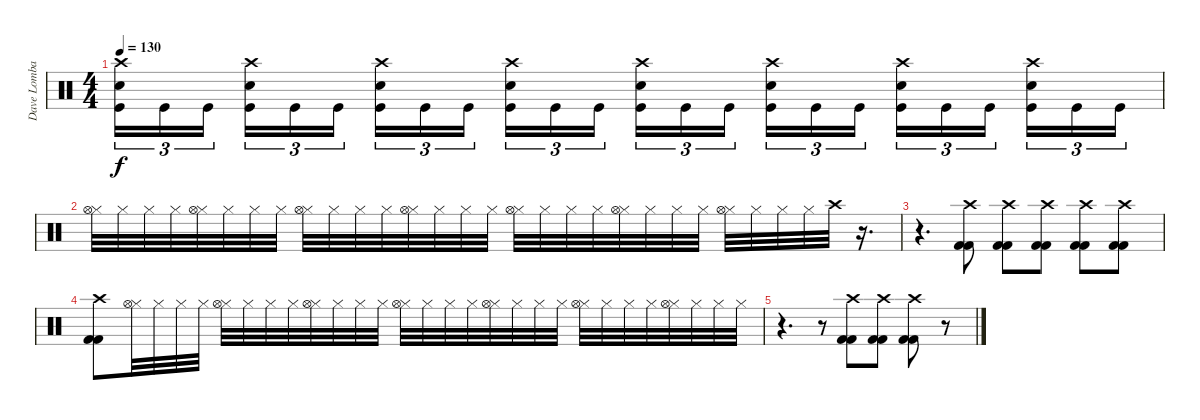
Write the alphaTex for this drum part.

\track ("Dave Lombardo" "Dave Lomba") {instrument percussion}
\staff {score}
\articulation defaults
\ts (4 4)
\tempo 130
\clef neutral
\ks c
("Crash high (hit)" "Electric Snare (hit)" "Kick (hit)").16{tu (3 2) dy f} "Kick (hit)".16{tu (3 2)} "Kick (hit)".16{tu (3 2)} ("Crash high (hit)" "Electric Snare (hit)" "Kick (hit)").16{tu (3 2)} "Kick (hit)".16{tu (3 2)} "Kick (hit)".16{tu (3 2)} ("Crash high (hit)" "Electric Snare (hit)" "Kick (hit)").16{tu (3 2)} "Kick (hit)".16{tu (3 2)} "Kick (hit)".16{tu (3 2)} ("Crash high (hit)" "Electric Snare (hit)" "Kick (hit)").16{tu (3 2)} "Kick (hit)".16{tu (3 2)} "Kick (hit)".16{tu (3 2)} ("Crash high (hit)" "Electric Snare (hit)" "Kick (hit)").16{tu (3 2)} "Kick (hit)".16{tu (3 2)} "Kick (hit)".16{tu (3 2)} ("Crash high (hit)" "Electric Snare (hit)" "Kick (hit)").16{tu (3 2)} "Kick (hit)".16{tu (3 2)} "Kick (hit)".16{tu (3 2)} ("Crash high (hit)" "Electric Snare (hit)" "Kick (hit)").16{tu (3 2)} "Kick (hit)".16{tu (3 2)} "Kick (hit)".16{tu (3 2)} ("Crash high (hit)" "Electric Snare (hit)" "Kick (hit)").16{tu (3 2)} "Kick (hit)".16{tu (3 2)} "Kick (hit)".16{tu (3 2)} |
("Hi-Hat (closed)" "Hi-Hat (open)").32 "Hi-Hat (closed)".32 "Hi-Hat (closed)".32 "Hi-Hat (closed)".32 ("Hi-Hat (closed)" "Hi-Hat (open)").32 "Hi-Hat (closed)".32 "Hi-Hat (closed)".32 "Hi-Hat (closed)".32 ("Hi-Hat (closed)" "Hi-Hat (open)").32 "Hi-Hat (closed)".32 "Hi-Hat (closed)".32 "Hi-Hat (closed)".32 ("Hi-Hat (closed)" "Hi-Hat (open)").32 "Hi-Hat (closed)".32 "Hi-Hat (closed)".32 "Hi-Hat (closed)".32 ("Hi-Hat (closed)" "Hi-Hat (open)").32 "Hi-Hat (closed)".32 "Hi-Hat (closed)".32 "Hi-Hat (closed)".32 ("Hi-Hat (closed)" "Hi-Hat (open)").32 "Hi-Hat (closed)".32 "Hi-Hat (closed)".32 "Hi-Hat (closed)".32 ("Hi-Hat (closed)" "Hi-Hat (open)").32 "Hi-Hat (closed)".32 "Hi-Hat (closed)".32 "Hi-Hat (closed)".32 "Crash high (hit)".32 r.16{d} |
r.4{d} ("Crash high (hit)" "Kick (hit) 2" "Kick (hit) 2").8 ("Crash high (hit)" "Kick (hit) 2" "Kick (hit) 2").8 ("Crash high (hit)" "Kick (hit) 2" "Kick (hit) 2").8 ("Crash high (hit)" "Kick (hit) 2" "Kick (hit) 2").8 ("Crash high (hit)" "Kick (hit) 2" "Kick (hit) 2").8 |
("Crash high (hit)" "Kick (hit) 2" "Kick (hit) 2").8 ("Hi-Hat (closed)" "Hi-Hat (open)").32 "Hi-Hat (closed)".32 "Hi-Hat (closed)".32 "Hi-Hat (closed)".32 ("Hi-Hat (closed)" "Hi-Hat (open)").32 "Hi-Hat (closed)".32 "Hi-Hat (closed)".32 "Hi-Hat (closed)".32 ("Hi-Hat (closed)" "Hi-Hat (open)").32 "Hi-Hat (closed)".32 "Hi-Hat (closed)".32 "Hi-Hat (closed)".32 ("Hi-Hat (closed)" "Hi-Hat (open)").32 "Hi-Hat (closed)".32 "Hi-Hat (closed)".32 "Hi-Hat (closed)".32 ("Hi-Hat (closed)" "Hi-Hat (open)").32 "Hi-Hat (closed)".32 "Hi-Hat (closed)".32 "Hi-Hat (closed)".32 ("Hi-Hat (closed)" "Hi-Hat (open)").32 "Hi-Hat (closed)".32 "Hi-Hat (closed)".32 "Hi-Hat (closed)".32 ("Hi-Hat (closed)" "Hi-Hat (open)").32 "Hi-Hat (closed)".32 "Hi-Hat (closed)".32 "Hi-Hat (closed)".32 |
r.4{d} r.8 ("Crash high (hit)" "Kick (hit) 2" "Kick (hit) 2").8 ("Crash high (hit)" "Kick (hit) 2" "Kick (hit) 2").8 ("Crash high (hit)" "Kick (hit) 2" "Kick (hit) 2").8 r.8
